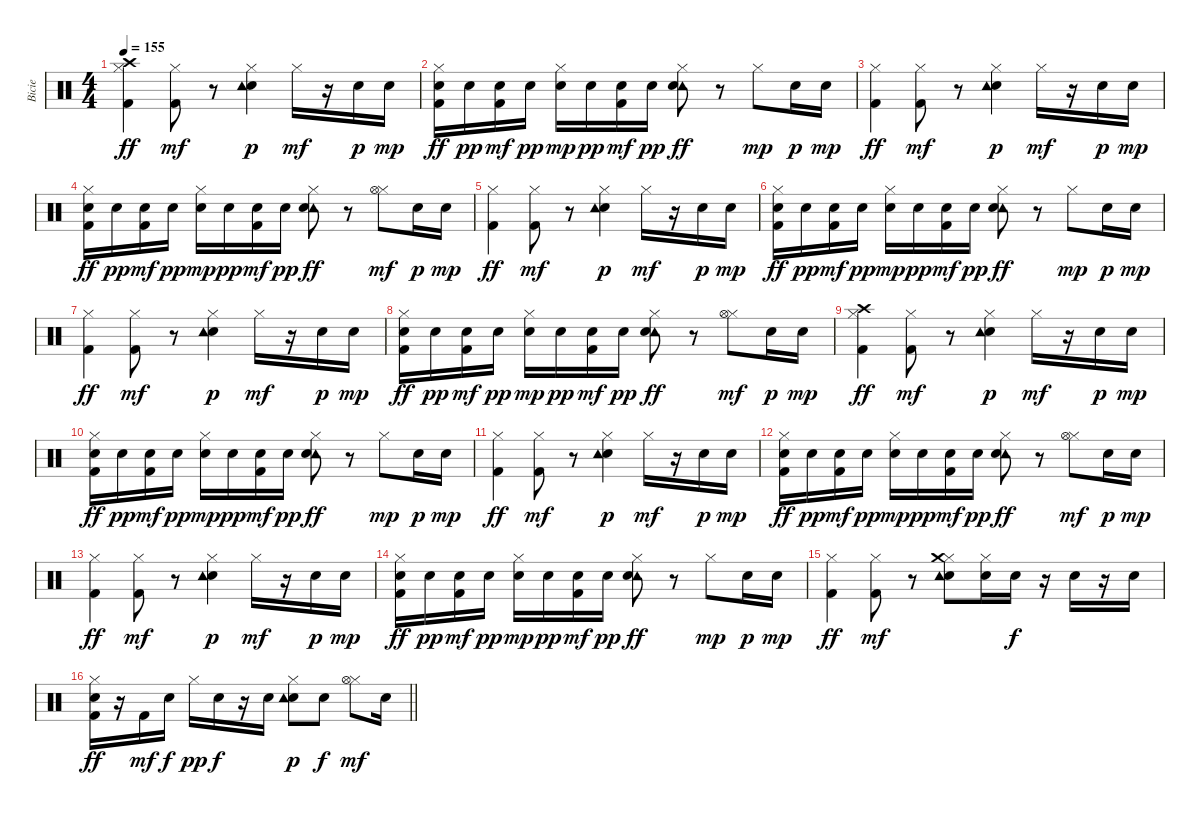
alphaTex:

\track ("Bicie" "Bicie") {instrument percussion}
\staff {score}
\articulation defaults
\ts (4 4)
\tempo 155
\clef neutral
\ks c
("Hi-Hat (closed)" "Crash high (hit)" "Kick (hit) 2").4{dy ff} ("Hi-Hat (closed)" "Kick (hit) 2").8{dy mf} r.8 ("Hi-Hat (closed)" "Electric Snare (hit)" "Tambourine (hit)").4{dy p} "Hi-Hat (closed)".16{dy mf} r.16 "Electric Snare (hit)".16{dy p} "Electric Snare (hit)".16{dy mp} |
("Hi-Hat (closed)" "Electric Snare (hit)" "Kick (hit) 2").16{dy ff} "Electric Snare (hit)".16{dy pp} ("Electric Snare (hit)" "Kick (hit) 2").16{dy mf} "Electric Snare (hit)".16{dy pp} ("Hi-Hat (closed)" "Electric Snare (hit)").16{dy mp} "Electric Snare (hit)".16{dy pp} ("Electric Snare (hit)" "Kick (hit) 2").16{dy mf} "Electric Snare (hit)".16{dy pp} ("Hi-Hat (closed)" "Tambourine (hit)" "Electric Snare (hit)").8{dy ff} r.8 "Hi-Hat (closed)".8{dy mp} "Electric Snare (hit)".16{dy p} "Electric Snare (hit)".16{dy mp} |
("Hi-Hat (closed)" "Kick (hit) 2").4{dy ff} ("Hi-Hat (closed)" "Kick (hit) 2").8{dy mf} r.8 ("Hi-Hat (closed)" "Electric Snare (hit)" "Tambourine (hit)").4{dy p} "Hi-Hat (closed)".16{dy mf} r.16 "Electric Snare (hit)".16{dy p} "Electric Snare (hit)".16{dy mp} |
("Hi-Hat (closed)" "Electric Snare (hit)" "Kick (hit) 2").16{dy ff} "Electric Snare (hit)".16{dy pp} ("Electric Snare (hit)" "Kick (hit) 2").16{dy mf} "Electric Snare (hit)".16{dy pp} ("Hi-Hat (closed)" "Electric Snare (hit)").16{dy mp} "Electric Snare (hit)".16{dy pp} ("Electric Snare (hit)" "Kick (hit) 2").16{dy mf} "Electric Snare (hit)".16{dy pp} ("Hi-Hat (closed)" "Tambourine (hit)" "Electric Snare (hit)").8{dy ff} r.8 ("Hi-Hat (closed)" "Hi-Hat (open)").8{dy mf} "Electric Snare (hit)".16{dy p} "Electric Snare (hit)".16{dy mp} |
("Hi-Hat (closed)" "Kick (hit) 2").4{dy ff} ("Hi-Hat (closed)" "Kick (hit) 2").8{dy mf} r.8 ("Hi-Hat (closed)" "Electric Snare (hit)" "Tambourine (hit)").4{dy p} "Hi-Hat (closed)".16{dy mf} r.16 "Electric Snare (hit)".16{dy p} "Electric Snare (hit)".16{dy mp} |
("Hi-Hat (closed)" "Electric Snare (hit)" "Kick (hit) 2").16{dy ff} "Electric Snare (hit)".16{dy pp} ("Electric Snare (hit)" "Kick (hit) 2").16{dy mf} "Electric Snare (hit)".16{dy pp} ("Hi-Hat (closed)" "Electric Snare (hit)").16{dy mp} "Electric Snare (hit)".16{dy pp} ("Electric Snare (hit)" "Kick (hit) 2").16{dy mf} "Electric Snare (hit)".16{dy pp} ("Hi-Hat (closed)" "Tambourine (hit)" "Electric Snare (hit)").8{dy ff} r.8 "Hi-Hat (closed)".8{dy mp} "Electric Snare (hit)".16{dy p} "Electric Snare (hit)".16{dy mp} |
("Hi-Hat (closed)" "Kick (hit) 2").4{dy ff} ("Hi-Hat (closed)" "Kick (hit) 2").8{dy mf} r.8 ("Hi-Hat (closed)" "Electric Snare (hit)" "Tambourine (hit)").4{dy p} "Hi-Hat (closed)".16{dy mf} r.16 "Electric Snare (hit)".16{dy p} "Electric Snare (hit)".16{dy mp} |
("Hi-Hat (closed)" "Electric Snare (hit)" "Kick (hit) 2").16{dy ff} "Electric Snare (hit)".16{dy pp} ("Electric Snare (hit)" "Kick (hit) 2").16{dy mf} "Electric Snare (hit)".16{dy pp} ("Hi-Hat (closed)" "Electric Snare (hit)").16{dy mp} "Electric Snare (hit)".16{dy pp} ("Electric Snare (hit)" "Kick (hit) 2").16{dy mf} "Electric Snare (hit)".16{dy pp} ("Hi-Hat (closed)" "Tambourine (hit)" "Electric Snare (hit)").8{dy ff} r.8 ("Hi-Hat (closed)" "Hi-Hat (open)").8{dy mf} "Electric Snare (hit)".16{dy p} "Electric Snare (hit)".16{dy mp} |
("Hi-Hat (closed)" "Crash high (hit)" "Kick (hit) 2").4{dy ff} ("Hi-Hat (closed)" "Kick (hit) 2").8{dy mf} r.8 ("Hi-Hat (closed)" "Electric Snare (hit)" "Tambourine (hit)").4{dy p} "Hi-Hat (closed)".16{dy mf} r.16 "Electric Snare (hit)".16{dy p} "Electric Snare (hit)".16{dy mp} |
("Hi-Hat (closed)" "Electric Snare (hit)" "Kick (hit) 2").16{dy ff} "Electric Snare (hit)".16{dy pp} ("Electric Snare (hit)" "Kick (hit) 2").16{dy mf} "Electric Snare (hit)".16{dy pp} ("Hi-Hat (closed)" "Electric Snare (hit)").16{dy mp} "Electric Snare (hit)".16{dy pp} ("Electric Snare (hit)" "Kick (hit) 2").16{dy mf} "Electric Snare (hit)".16{dy pp} ("Hi-Hat (closed)" "Tambourine (hit)" "Electric Snare (hit)").8{dy ff} r.8 "Hi-Hat (closed)".8{dy mp} "Electric Snare (hit)".16{dy p} "Electric Snare (hit)".16{dy mp} |
("Hi-Hat (closed)" "Kick (hit) 2").4{dy ff} ("Hi-Hat (closed)" "Kick (hit) 2").8{dy mf} r.8 ("Hi-Hat (closed)" "Electric Snare (hit)" "Tambourine (hit)").4{dy p} "Hi-Hat (closed)".16{dy mf} r.16 "Electric Snare (hit)".16{dy p} "Electric Snare (hit)".16{dy mp} |
("Hi-Hat (closed)" "Electric Snare (hit)" "Kick (hit) 2").16{dy ff} "Electric Snare (hit)".16{dy pp} ("Electric Snare (hit)" "Kick (hit) 2").16{dy mf} "Electric Snare (hit)".16{dy pp} ("Hi-Hat (closed)" "Electric Snare (hit)").16{dy mp} "Electric Snare (hit)".16{dy pp} ("Electric Snare (hit)" "Kick (hit) 2").16{dy mf} "Electric Snare (hit)".16{dy pp} ("Hi-Hat (closed)" "Tambourine (hit)" "Electric Snare (hit)").8{dy ff} r.8 ("Hi-Hat (closed)" "Hi-Hat (open)").8{dy mf} "Electric Snare (hit)".16{dy p} "Electric Snare (hit)".16{dy mp} |
("Hi-Hat (closed)" "Kick (hit) 2").4{dy ff} ("Hi-Hat (closed)" "Kick (hit) 2").8{dy mf} r.8 ("Hi-Hat (closed)" "Electric Snare (hit)" "Tambourine (hit)").4{dy p} "Hi-Hat (closed)".16{dy mf} r.16 "Electric Snare (hit)".16{dy p} "Electric Snare (hit)".16{dy mp} |
("Hi-Hat (closed)" "Electric Snare (hit)" "Kick (hit) 2").16{dy ff} "Electric Snare (hit)".16{dy pp} ("Electric Snare (hit)" "Kick (hit) 2").16{dy mf} "Electric Snare (hit)".16{dy pp} ("Hi-Hat (closed)" "Electric Snare (hit)").16{dy mp} "Electric Snare (hit)".16{dy pp} ("Electric Snare (hit)" "Kick (hit) 2").16{dy mf} "Electric Snare (hit)".16{dy pp} ("Hi-Hat (closed)" "Tambourine (hit)" "Electric Snare (hit)").8{dy ff} r.8 "Hi-Hat (closed)".8{dy mp} "Electric Snare (hit)".16{dy p} "Electric Snare (hit)".16{dy mp} |
("Hi-Hat (closed)" "Kick (hit) 2").4{dy ff} ("Hi-Hat (closed)" "Kick (hit) 2").8{dy mf} r.8 ("Hi-Hat (closed)" "Electric Snare (hit)" "Tambourine (hit)" "Crash medium (hit)").8 ("Hi-Hat (closed)" "Electric Snare (hit)").16 "Electric Snare (hit)".16{dy f} r.16 "Electric Snare (hit)".16 r.16 "Electric Snare (hit)".16 |
\barLineRight lightlight
("Hi-Hat (closed)" "Electric Snare (hit)" "Kick (hit) 2").16{dy ff} r.16 "Kick (hit) 2".16{dy mf} "Electric Snare (hit)".16{dy f} "Hi-Hat (closed)".16{dy pp} "Electric Snare (hit)".16{dy f} r.16 "Electric Snare (hit)".16 ("Hi-Hat (closed)" "Electric Snare (hit)" "Tambourine (hit)").8{dy p} "Electric Snare (hit)".8{dy f} ("Hi-Hat (closed)" "Hi-Hat (open)").8{dy mf} "Electric Snare (hit)".16
